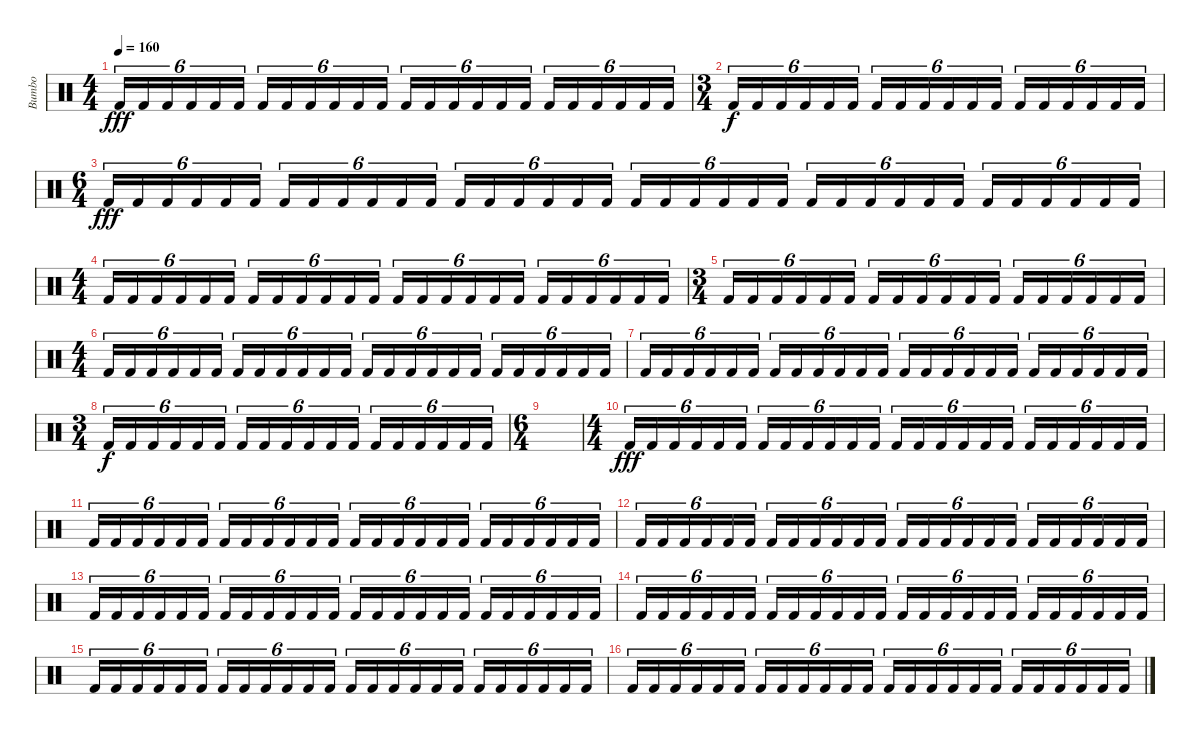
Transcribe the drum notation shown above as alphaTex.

\track ("Bumbo" "Bumbo") {instrument percussion}
\staff {score}
\articulation defaults
\ts (4 4)
\tempo 160
\clef neutral
\ks c "Kick (hit) 2".16{tu (6 4) dy fff} "Kick (hit) 2".16{tu (6 4)} "Kick (hit) 2".16{tu (6 4)} "Kick (hit) 2".16{tu (6 4)} "Kick (hit) 2".16{tu (6 4)} "Kick (hit) 2".16{tu (6 4)} "Kick (hit) 2".16{tu (6 4)} "Kick (hit) 2".16{tu (6 4)} "Kick (hit) 2".16{tu (6 4)} "Kick (hit) 2".16{tu (6 4)} "Kick (hit) 2".16{tu (6 4)} "Kick (hit) 2".16{tu (6 4)} "Kick (hit) 2".16{tu (6 4)} "Kick (hit) 2".16{tu (6 4)} "Kick (hit) 2".16{tu (6 4)} "Kick (hit) 2".16{tu (6 4)} "Kick (hit) 2".16{tu (6 4)} "Kick (hit) 2".16{tu (6 4)} "Kick (hit) 2".16{tu (6 4)} "Kick (hit) 2".16{tu (6 4)} "Kick (hit) 2".16{tu (6 4)} "Kick (hit) 2".16{tu (6 4)} "Kick (hit) 2".16{tu (6 4)} "Kick (hit) 2".16{tu (6 4)}
|
\ts (3 4)
"Kick (hit) 2".16{tu (6 4) dy f} "Kick (hit) 2".16{tu (6 4)} "Kick (hit) 2".16{tu (6 4)} "Kick (hit) 2".16{tu (6 4)} "Kick (hit) 2".16{tu (6 4)} "Kick (hit) 2".16{tu (6 4)} "Kick (hit) 2".16{tu (6 4)} "Kick (hit) 2".16{tu (6 4)} "Kick (hit) 2".16{tu (6 4)} "Kick (hit) 2".16{tu (6 4)} "Kick (hit) 2".16{tu (6 4)} "Kick (hit) 2".16{tu (6 4)} "Kick (hit) 2".16{tu (6 4)} "Kick (hit) 2".16{tu (6 4)} "Kick (hit) 2".16{tu (6 4)} "Kick (hit) 2".16{tu (6 4)} "Kick (hit) 2".16{tu (6 4)} "Kick (hit) 2".16{tu (6 4)} |
\ts (6 4)
"Kick (hit) 2".16{tu (6 4) dy fff} "Kick (hit) 2".16{tu (6 4)} "Kick (hit) 2".16{tu (6 4)} "Kick (hit) 2".16{tu (6 4)} "Kick (hit) 2".16{tu (6 4)} "Kick (hit) 2".16{tu (6 4)} "Kick (hit) 2".16{tu (6 4)} "Kick (hit) 2".16{tu (6 4)} "Kick (hit) 2".16{tu (6 4)} "Kick (hit) 2".16{tu (6 4)} "Kick (hit) 2".16{tu (6 4)} "Kick (hit) 2".16{tu (6 4)} "Kick (hit) 2".16{tu (6 4)} "Kick (hit) 2".16{tu (6 4)} "Kick (hit) 2".16{tu (6 4)} "Kick (hit) 2".16{tu (6 4)} "Kick (hit) 2".16{tu (6 4)} "Kick (hit) 2".16{tu (6 4)} "Kick (hit) 2".16{tu (6 4)} "Kick (hit) 2".16{tu (6 4)} "Kick (hit) 2".16{tu (6 4)} "Kick (hit) 2".16{tu (6 4)} "Kick (hit) 2".16{tu (6 4)} "Kick (hit) 2".16{tu (6 4)} "Kick (hit) 2".16{tu (6 4)} "Kick (hit) 2".16{tu (6 4)} "Kick (hit) 2".16{tu (6 4)} "Kick (hit) 2".16{tu (6 4)} "Kick (hit) 2".16{tu (6 4)} "Kick (hit) 2".16{tu (6 4)} "Kick (hit) 2".16{tu (6 4)} "Kick (hit) 2".16{tu (6 4)} "Kick (hit) 2".16{tu (6 4)} "Kick (hit) 2".16{tu (6 4)} "Kick (hit) 2".16{tu (6 4)} "Kick (hit) 2".16{tu (6 4)} |
\ts (4 4)
"Kick (hit) 2".16{tu (6 4)} "Kick (hit) 2".16{tu (6 4)} "Kick (hit) 2".16{tu (6 4)} "Kick (hit) 2".16{tu (6 4)} "Kick (hit) 2".16{tu (6 4)} "Kick (hit) 2".16{tu (6 4)} "Kick (hit) 2".16{tu (6 4)} "Kick (hit) 2".16{tu (6 4)} "Kick (hit) 2".16{tu (6 4)} "Kick (hit) 2".16{tu (6 4)} "Kick (hit) 2".16{tu (6 4)} "Kick (hit) 2".16{tu (6 4)} "Kick (hit) 2".16{tu (6 4)} "Kick (hit) 2".16{tu (6 4)} "Kick (hit) 2".16{tu (6 4)} "Kick (hit) 2".16{tu (6 4)} "Kick (hit) 2".16{tu (6 4)} "Kick (hit) 2".16{tu (6 4)} "Kick (hit) 2".16{tu (6 4)} "Kick (hit) 2".16{tu (6 4)} "Kick (hit) 2".16{tu (6 4)} "Kick (hit) 2".16{tu (6 4)} "Kick (hit) 2".16{tu (6 4)} "Kick (hit) 2".16{tu (6 4)} |
\ts (3 4)
"Kick (hit) 2".16{tu (6 4)} "Kick (hit) 2".16{tu (6 4)} "Kick (hit) 2".16{tu (6 4)} "Kick (hit) 2".16{tu (6 4)} "Kick (hit) 2".16{tu (6 4)} "Kick (hit) 2".16{tu (6 4)} "Kick (hit) 2".16{tu (6 4)} "Kick (hit) 2".16{tu (6 4)} "Kick (hit) 2".16{tu (6 4)} "Kick (hit) 2".16{tu (6 4)} "Kick (hit) 2".16{tu (6 4)} "Kick (hit) 2".16{tu (6 4)} "Kick (hit) 2".16{tu (6 4)} "Kick (hit) 2".16{tu (6 4)} "Kick (hit) 2".16{tu (6 4)} "Kick (hit) 2".16{tu (6 4)} "Kick (hit) 2".16{tu (6 4)} "Kick (hit) 2".16{tu (6 4)} |
\ts (4 4)
"Kick (hit) 2".16{tu (6 4)} "Kick (hit) 2".16{tu (6 4)} "Kick (hit) 2".16{tu (6 4)} "Kick (hit) 2".16{tu (6 4)} "Kick (hit) 2".16{tu (6 4)} "Kick (hit) 2".16{tu (6 4)} "Kick (hit) 2".16{tu (6 4)} "Kick (hit) 2".16{tu (6 4)} "Kick (hit) 2".16{tu (6 4)} "Kick (hit) 2".16{tu (6 4)} "Kick (hit) 2".16{tu (6 4)} "Kick (hit) 2".16{tu (6 4)} "Kick (hit) 2".16{tu (6 4)} "Kick (hit) 2".16{tu (6 4)} "Kick (hit) 2".16{tu (6 4)} "Kick (hit) 2".16{tu (6 4)} "Kick (hit) 2".16{tu (6 4)} "Kick (hit) 2".16{tu (6 4)} "Kick (hit) 2".16{tu (6 4)} "Kick (hit) 2".16{tu (6 4)} "Kick (hit) 2".16{tu (6 4)} "Kick (hit) 2".16{tu (6 4)} "Kick (hit) 2".16{tu (6 4)} "Kick (hit) 2".16{tu (6 4)} |
"Kick (hit) 2".16{tu (6 4)} "Kick (hit) 2".16{tu (6 4)} "Kick (hit) 2".16{tu (6 4)} "Kick (hit) 2".16{tu (6 4)} "Kick (hit) 2".16{tu (6 4)} "Kick (hit) 2".16{tu (6 4)} "Kick (hit) 2".16{tu (6 4)} "Kick (hit) 2".16{tu (6 4)} "Kick (hit) 2".16{tu (6 4)} "Kick (hit) 2".16{tu (6 4)} "Kick (hit) 2".16{tu (6 4)} "Kick (hit) 2".16{tu (6 4)} "Kick (hit) 2".16{tu (6 4)} "Kick (hit) 2".16{tu (6 4)} "Kick (hit) 2".16{tu (6 4)} "Kick (hit) 2".16{tu (6 4)} "Kick (hit) 2".16{tu (6 4)} "Kick (hit) 2".16{tu (6 4)} "Kick (hit) 2".16{tu (6 4)} "Kick (hit) 2".16{tu (6 4)} "Kick (hit) 2".16{tu (6 4)} "Kick (hit) 2".16{tu (6 4)} "Kick (hit) 2".16{tu (6 4)} "Kick (hit) 2".16{tu (6 4)} |
\ts (3 4)
"Kick (hit) 2".16{tu (6 4) dy f} "Kick (hit) 2".16{tu (6 4)} "Kick (hit) 2".16{tu (6 4)} "Kick (hit) 2".16{tu (6 4)} "Kick (hit) 2".16{tu (6 4)} "Kick (hit) 2".16{tu (6 4)} "Kick (hit) 2".16{tu (6 4)} "Kick (hit) 2".16{tu (6 4)} "Kick (hit) 2".16{tu (6 4)} "Kick (hit) 2".16{tu (6 4)} "Kick (hit) 2".16{tu (6 4)} "Kick (hit) 2".16{tu (6 4)} "Kick (hit) 2".16{tu (6 4)} "Kick (hit) 2".16{tu (6 4)} "Kick (hit) 2".16{tu (6 4)} "Kick (hit) 2".16{tu (6 4)} "Kick (hit) 2".16{tu (6 4)} "Kick (hit) 2".16{tu (6 4)} |
\ts (6 4)
|
\ts (4 4)
"Kick (hit) 2".16{tu (6 4) dy fff} "Kick (hit) 2".16{tu (6 4)} "Kick (hit) 2".16{tu (6 4)} "Kick (hit) 2".16{tu (6 4)} "Kick (hit) 2".16{tu (6 4)} "Kick (hit) 2".16{tu (6 4)} "Kick (hit) 2".16{tu (6 4)} "Kick (hit) 2".16{tu (6 4)} "Kick (hit) 2".16{tu (6 4)} "Kick (hit) 2".16{tu (6 4)} "Kick (hit) 2".16{tu (6 4)} "Kick (hit) 2".16{tu (6 4)} "Kick (hit) 2".16{tu (6 4)} "Kick (hit) 2".16{tu (6 4)} "Kick (hit) 2".16{tu (6 4)} "Kick (hit) 2".16{tu (6 4)} "Kick (hit) 2".16{tu (6 4)} "Kick (hit) 2".16{tu (6 4)} "Kick (hit) 2".16{tu (6 4)} "Kick (hit) 2".16{tu (6 4)} "Kick (hit) 2".16{tu (6 4)} "Kick (hit) 2".16{tu (6 4)} "Kick (hit) 2".16{tu (6 4)} "Kick (hit) 2".16{tu (6 4)} |
"Kick (hit) 2".16{tu (6 4)} "Kick (hit) 2".16{tu (6 4)} "Kick (hit) 2".16{tu (6 4)} "Kick (hit) 2".16{tu (6 4)} "Kick (hit) 2".16{tu (6 4)} "Kick (hit) 2".16{tu (6 4)} "Kick (hit) 2".16{tu (6 4)} "Kick (hit) 2".16{tu (6 4)} "Kick (hit) 2".16{tu (6 4)} "Kick (hit) 2".16{tu (6 4)} "Kick (hit) 2".16{tu (6 4)} "Kick (hit) 2".16{tu (6 4)} "Kick (hit) 2".16{tu (6 4)} "Kick (hit) 2".16{tu (6 4)} "Kick (hit) 2".16{tu (6 4)} "Kick (hit) 2".16{tu (6 4)} "Kick (hit) 2".16{tu (6 4)} "Kick (hit) 2".16{tu (6 4)} "Kick (hit) 2".16{tu (6 4)} "Kick (hit) 2".16{tu (6 4)} "Kick (hit) 2".16{tu (6 4)} "Kick (hit) 2".16{tu (6 4)} "Kick (hit) 2".16{tu (6 4)} "Kick (hit) 2".16{tu (6 4)} |
"Kick (hit) 2".16{tu (6 4)} "Kick (hit) 2".16{tu (6 4)} "Kick (hit) 2".16{tu (6 4)} "Kick (hit) 2".16{tu (6 4)} "Kick (hit) 2".16{tu (6 4)} "Kick (hit) 2".16{tu (6 4)} "Kick (hit) 2".16{tu (6 4)} "Kick (hit) 2".16{tu (6 4)} "Kick (hit) 2".16{tu (6 4)} "Kick (hit) 2".16{tu (6 4)} "Kick (hit) 2".16{tu (6 4)} "Kick (hit) 2".16{tu (6 4)} "Kick (hit) 2".16{tu (6 4)} "Kick (hit) 2".16{tu (6 4)} "Kick (hit) 2".16{tu (6 4)} "Kick (hit) 2".16{tu (6 4)} "Kick (hit) 2".16{tu (6 4)} "Kick (hit) 2".16{tu (6 4)} "Kick (hit) 2".16{tu (6 4)} "Kick (hit) 2".16{tu (6 4)} "Kick (hit) 2".16{tu (6 4)} "Kick (hit) 2".16{tu (6 4)} "Kick (hit) 2".16{tu (6 4)} "Kick (hit) 2".16{tu (6 4)} |
"Kick (hit) 2".16{tu (6 4)} "Kick (hit) 2".16{tu (6 4)} "Kick (hit) 2".16{tu (6 4)} "Kick (hit) 2".16{tu (6 4)} "Kick (hit) 2".16{tu (6 4)} "Kick (hit) 2".16{tu (6 4)} "Kick (hit) 2".16{tu (6 4)} "Kick (hit) 2".16{tu (6 4)} "Kick (hit) 2".16{tu (6 4)} "Kick (hit) 2".16{tu (6 4)} "Kick (hit) 2".16{tu (6 4)} "Kick (hit) 2".16{tu (6 4)} "Kick (hit) 2".16{tu (6 4)} "Kick (hit) 2".16{tu (6 4)} "Kick (hit) 2".16{tu (6 4)} "Kick (hit) 2".16{tu (6 4)} "Kick (hit) 2".16{tu (6 4)} "Kick (hit) 2".16{tu (6 4)} "Kick (hit) 2".16{tu (6 4)} "Kick (hit) 2".16{tu (6 4)} "Kick (hit) 2".16{tu (6 4)} "Kick (hit) 2".16{tu (6 4)} "Kick (hit) 2".16{tu (6 4)} "Kick (hit) 2".16{tu (6 4)} |
"Kick (hit) 2".16{tu (6 4)} "Kick (hit) 2".16{tu (6 4)} "Kick (hit) 2".16{tu (6 4)} "Kick (hit) 2".16{tu (6 4)} "Kick (hit) 2".16{tu (6 4)} "Kick (hit) 2".16{tu (6 4)} "Kick (hit) 2".16{tu (6 4)} "Kick (hit) 2".16{tu (6 4)} "Kick (hit) 2".16{tu (6 4)} "Kick (hit) 2".16{tu (6 4)} "Kick (hit) 2".16{tu (6 4)} "Kick (hit) 2".16{tu (6 4)} "Kick (hit) 2".16{tu (6 4)} "Kick (hit) 2".16{tu (6 4)} "Kick (hit) 2".16{tu (6 4)} "Kick (hit) 2".16{tu (6 4)} "Kick (hit) 2".16{tu (6 4)} "Kick (hit) 2".16{tu (6 4)} "Kick (hit) 2".16{tu (6 4)} "Kick (hit) 2".16{tu (6 4)} "Kick (hit) 2".16{tu (6 4)} "Kick (hit) 2".16{tu (6 4)} "Kick (hit) 2".16{tu (6 4)} "Kick (hit) 2".16{tu (6 4)} |
"Kick (hit) 2".16{tu (6 4)} "Kick (hit) 2".16{tu (6 4)} "Kick (hit) 2".16{tu (6 4)} "Kick (hit) 2".16{tu (6 4)} "Kick (hit) 2".16{tu (6 4)} "Kick (hit) 2".16{tu (6 4)} "Kick (hit) 2".16{tu (6 4)} "Kick (hit) 2".16{tu (6 4)} "Kick (hit) 2".16{tu (6 4)} "Kick (hit) 2".16{tu (6 4)} "Kick (hit) 2".16{tu (6 4)} "Kick (hit) 2".16{tu (6 4)} "Kick (hit) 2".16{tu (6 4)} "Kick (hit) 2".16{tu (6 4)} "Kick (hit) 2".16{tu (6 4)} "Kick (hit) 2".16{tu (6 4)} "Kick (hit) 2".16{tu (6 4)} "Kick (hit) 2".16{tu (6 4)} "Kick (hit) 2".16{tu (6 4)} "Kick (hit) 2".16{tu (6 4)} "Kick (hit) 2".16{tu (6 4)} "Kick (hit) 2".16{tu (6 4)} "Kick (hit) 2".16{tu (6 4)} "Kick (hit) 2".16{tu (6 4)} |
"Kick (hit) 2".16{tu (6 4)} "Kick (hit) 2".16{tu (6 4)} "Kick (hit) 2".16{tu (6 4)} "Kick (hit) 2".16{tu (6 4)} "Kick (hit) 2".16{tu (6 4)} "Kick (hit) 2".16{tu (6 4)} "Kick (hit) 2".16{tu (6 4)} "Kick (hit) 2".16{tu (6 4)} "Kick (hit) 2".16{tu (6 4)} "Kick (hit) 2".16{tu (6 4)} "Kick (hit) 2".16{tu (6 4)} "Kick (hit) 2".16{tu (6 4)} "Kick (hit) 2".16{tu (6 4)} "Kick (hit) 2".16{tu (6 4)} "Kick (hit) 2".16{tu (6 4)} "Kick (hit) 2".16{tu (6 4)} "Kick (hit) 2".16{tu (6 4)} "Kick (hit) 2".16{tu (6 4)} "Kick (hit) 2".16{tu (6 4)} "Kick (hit) 2".16{tu (6 4)} "Kick (hit) 2".16{tu (6 4)} "Kick (hit) 2".16{tu (6 4)} "Kick (hit) 2".16{tu (6 4)} "Kick (hit) 2".16{tu (6 4)}
